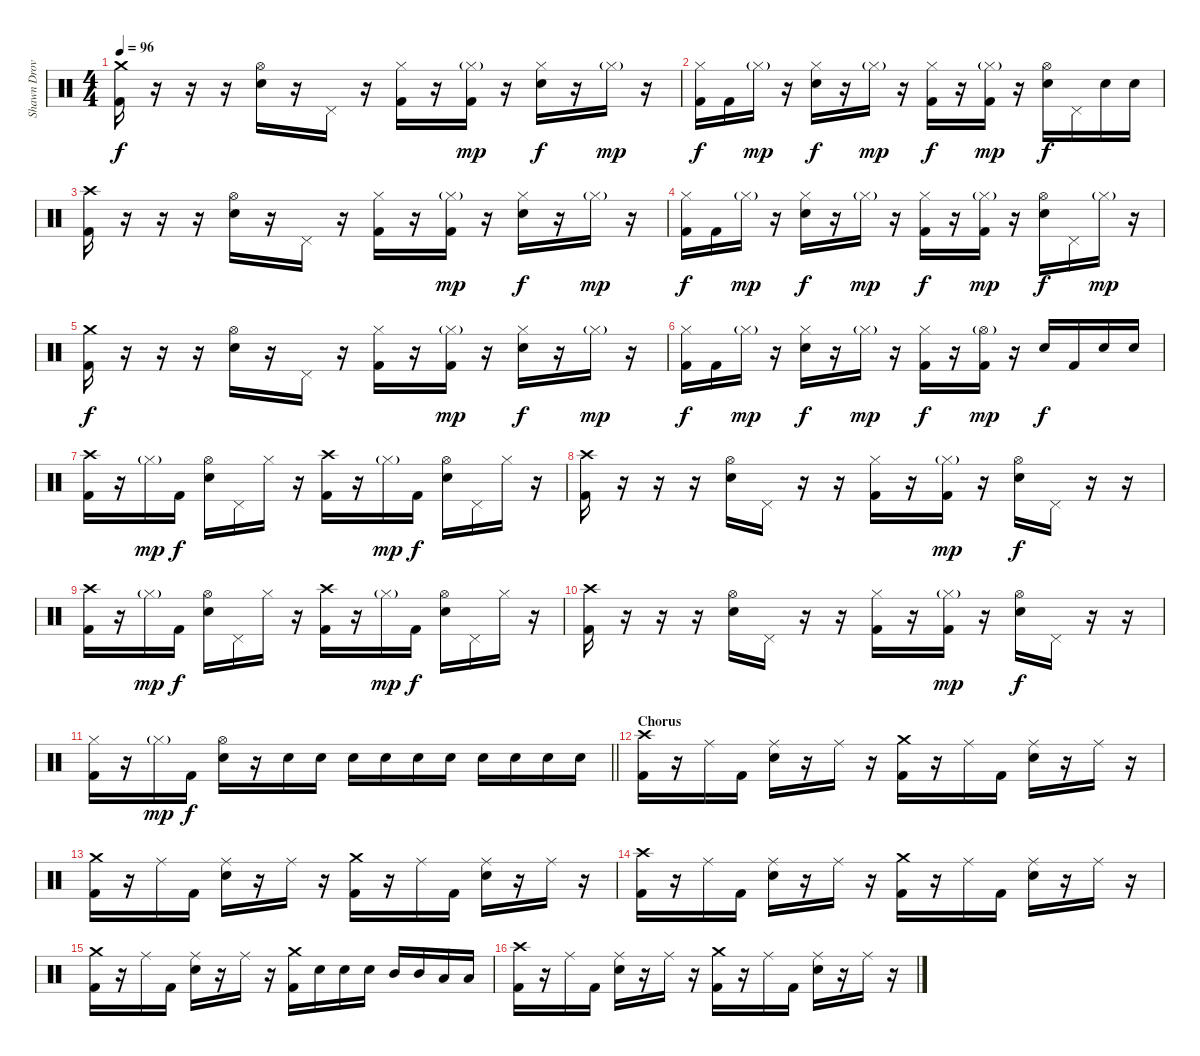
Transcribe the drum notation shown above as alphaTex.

\track ("Shawn Drover" "Shawn Drov") {instrument percussion}
\staff {score}
\articulation defaults
\ts (4 4)
\tempo 96
\clef neutral
\ks c
("Crash medium (hit)" "Kick (hit) 2").16{dy f} r.16 r.16 r.16 ("Hi-Hat (open)" "Snare (hit) 2").16 r.16 "Pedal Hi-Hat (hit)".16 r.16 ("Hi-Hat (closed)" "Kick (hit) 2").16 r.16 ("Hi-Hat (closed)"{g} "Kick (hit) 2").16{dy mp} r.16 ("Hi-Hat (closed)" "Snare (hit) 2").16{dy f} r.16 "Hi-Hat (closed)"{g}.16{dy mp} r.16 |
("Hi-Hat (closed)" "Kick (hit) 2").16{dy f} "Kick (hit) 2".16 "Hi-Hat (closed)"{g}.16{dy mp} r.16 ("Hi-Hat (closed)" "Snare (hit) 2").16{dy f} r.16 "Hi-Hat (closed)"{g}.16{dy mp} r.16 ("Hi-Hat (closed)" "Kick (hit) 2").16{dy f} r.16 ("Hi-Hat (closed)"{g} "Kick (hit) 2").16{dy mp} r.16 ("Hi-Hat (open)" "Snare (hit) 2").16{dy f} "Pedal Hi-Hat (hit)".16 "Snare (hit) 2".16 "Snare (hit) 2".16 |
("Crash high (hit)" "Kick (hit) 2").16 r.16 r.16 r.16 ("Hi-Hat (open)" "Snare (hit) 2").16 r.16 "Pedal Hi-Hat (hit)".16 r.16 ("Hi-Hat (closed)" "Kick (hit) 2").16 r.16 ("Hi-Hat (closed)"{g} "Kick (hit) 2").16{dy mp} r.16 ("Hi-Hat (closed)" "Snare (hit) 2").16{dy f} r.16 "Hi-Hat (closed)"{g}.16{dy mp} r.16 |
("Hi-Hat (closed)" "Kick (hit) 2").16{dy f} "Kick (hit) 2".16 "Hi-Hat (closed)"{g}.16{dy mp} r.16 ("Hi-Hat (closed)" "Snare (hit) 2").16{dy f} r.16 "Hi-Hat (closed)"{g}.16{dy mp} r.16 ("Hi-Hat (closed)" "Kick (hit) 2").16{dy f} r.16 ("Hi-Hat (closed)"{g} "Kick (hit) 2").16{dy mp} r.16 ("Hi-Hat (open)" "Snare (hit) 2").16{dy f} "Pedal Hi-Hat (hit)".16 "Hi-Hat (closed)"{g}.16{dy mp} r.16 |
("Crash medium (hit)" "Kick (hit) 2").16{dy f} r.16 r.16 r.16 ("Hi-Hat (open)" "Snare (hit) 2").16 r.16 "Pedal Hi-Hat (hit)".16 r.16 ("Hi-Hat (closed)" "Kick (hit) 2").16 r.16 ("Hi-Hat (closed)"{g} "Kick (hit) 2").16{dy mp} r.16 ("Hi-Hat (closed)" "Snare (hit) 2").16{dy f} r.16 "Hi-Hat (closed)"{g}.16{dy mp} r.16 |
("Hi-Hat (closed)" "Kick (hit) 2").16{dy f} "Kick (hit) 2".16 "Hi-Hat (closed)"{g}.16{dy mp} r.16 ("Hi-Hat (closed)" "Snare (hit) 2").16{dy f} r.16 "Hi-Hat (closed)"{g}.16{dy mp} r.16 ("Hi-Hat (closed)" "Kick (hit) 2").16{dy f} r.16 ("Hi-Hat (open)"{g} "Kick (hit) 2").16{dy mp} r.16 "Snare (hit) 2".16{dy f} "Kick (hit) 2".16 "Snare (hit) 2".16 "Snare (hit) 2".16 |
("Crash high (hit)" "Kick (hit) 2").16 r.16 "Hi-Hat (closed)"{g}.16{dy mp} "Kick (hit) 2".16{dy f} ("Hi-Hat (open)" "Snare (hit) 2").16 "Pedal Hi-Hat (hit)".16 "Hi-Hat (closed)".16 r.16 ("Crash high (hit)" "Kick (hit) 2").16 r.16 "Hi-Hat (closed)"{g}.16{dy mp} "Kick (hit) 2".16{dy f} ("Hi-Hat (open)" "Snare (hit) 2").16 "Pedal Hi-Hat (hit)".16 "Hi-Hat (closed)".16 r.16 |
("Crash high (hit)" "Kick (hit) 2").16 r.16 r.16 r.16 ("Hi-Hat (open)" "Snare (hit) 2").16 "Pedal Hi-Hat (hit)".16 r.16 r.16 ("Hi-Hat (closed)" "Kick (hit) 2").16 r.16 ("Hi-Hat (closed)"{g} "Kick (hit) 2").16{dy mp} r.16 ("Hi-Hat (open)" "Snare (hit) 2").16{dy f} "Pedal Hi-Hat (hit)".16 r.16 r.16 |
("Crash high (hit)" "Kick (hit) 2").16 r.16 "Hi-Hat (closed)"{g}.16{dy mp} "Kick (hit) 2".16{dy f} ("Hi-Hat (open)" "Snare (hit) 2").16 "Pedal Hi-Hat (hit)".16 "Hi-Hat (closed)".16 r.16 ("Crash high (hit)" "Kick (hit) 2").16 r.16 "Hi-Hat (closed)"{g}.16{dy mp} "Kick (hit) 2".16{dy f} ("Hi-Hat (open)" "Snare (hit) 2").16 "Pedal Hi-Hat (hit)".16 "Hi-Hat (closed)".16 r.16 |
("Crash high (hit)" "Kick (hit) 2").16 r.16 r.16 r.16 ("Hi-Hat (open)" "Snare (hit) 2").16 "Pedal Hi-Hat (hit)".16 r.16 r.16 ("Hi-Hat (closed)" "Kick (hit) 2").16 r.16 ("Hi-Hat (closed)"{g} "Kick (hit) 2").16{dy mp} r.16 ("Hi-Hat (open)" "Snare (hit) 2").16{dy f} "Pedal Hi-Hat (hit)".16 r.16 r.16 |
\barLineRight lightlight
("Hi-Hat (closed)" "Kick (hit) 2").16 r.16 "Hi-Hat (closed)"{g}.16{dy mp} "Kick (hit) 2".16{dy f} ("Hi-Hat (open)" "Snare (hit) 2").16 r.16 "Snare (hit) 2".16 "Snare (hit) 2".16 "Snare (hit) 2".16 "Snare (hit) 2".16 "Snare (hit) 2".16 "Snare (hit) 2".16 "Snare (hit) 2".16 "Snare (hit) 2".16 "Snare (hit) 2".16 "Snare (hit) 2".16 |
\section ("" "Chorus")
("Crash high (hit)" "Kick (hit) 2").16 r.16 "Ride (middle)".16 "Kick (hit) 2".16 ("Ride (middle)" "Snare (hit) 2").16 r.16 "Ride (middle)".16 r.16 ("Crash medium (hit)" "Kick (hit) 2").16 r.16 "Ride (middle)".16 "Kick (hit) 2".16 ("Ride (middle)" "Snare (hit) 2").16 r.16 "Ride (middle)".16 r.16 |
("Crash medium (hit)" "Kick (hit) 2").16 r.16 "Ride (middle)".16 "Kick (hit) 2".16 ("Ride (middle)" "Snare (hit) 2").16 r.16 "Ride (middle)".16 r.16 ("Crash medium (hit)" "Kick (hit) 2").16 r.16 "Ride (middle)".16 "Kick (hit) 2".16 ("Ride (middle)" "Snare (hit) 2").16 r.16 "Ride (middle)".16 r.16 |
("Crash high (hit)" "Kick (hit) 2").16 r.16 "Ride (middle)".16 "Kick (hit) 2".16 ("Ride (middle)" "Snare (hit) 2").16 r.16 "Ride (middle)".16 r.16 ("Crash medium (hit)" "Kick (hit) 2").16 r.16 "Ride (middle)".16 "Kick (hit) 2".16 ("Ride (middle)" "Snare (hit) 2").16 r.16 "Ride (middle)".16 r.16 |
("Crash medium (hit)" "Kick (hit) 2").16 r.16 "Ride (middle)".16 "Kick (hit) 2".16 ("Ride (middle)" "Snare (hit) 2").16 r.16 "Ride (middle)".16 r.16 ("Crash medium (hit)" "Kick (hit) 2").16 "Snare (hit) 2".16 "Snare (hit) 2".16 "Snare (hit) 2".16 "Mid Tom (hit)".16 "Mid Tom (hit)".16 "Low Tom (hit)".16 "Low Tom (hit)".16 |
("Crash high (hit)" "Kick (hit) 2").16 r.16 "Ride (middle)".16 "Kick (hit) 2".16 ("Ride (middle)" "Snare (hit) 2").16 r.16 "Ride (middle)".16 r.16 ("Crash medium (hit)" "Kick (hit) 2").16 r.16 "Ride (middle)".16 "Kick (hit) 2".16 ("Ride (middle)" "Snare (hit) 2").16 r.16 "Ride (middle)".16 r.16
